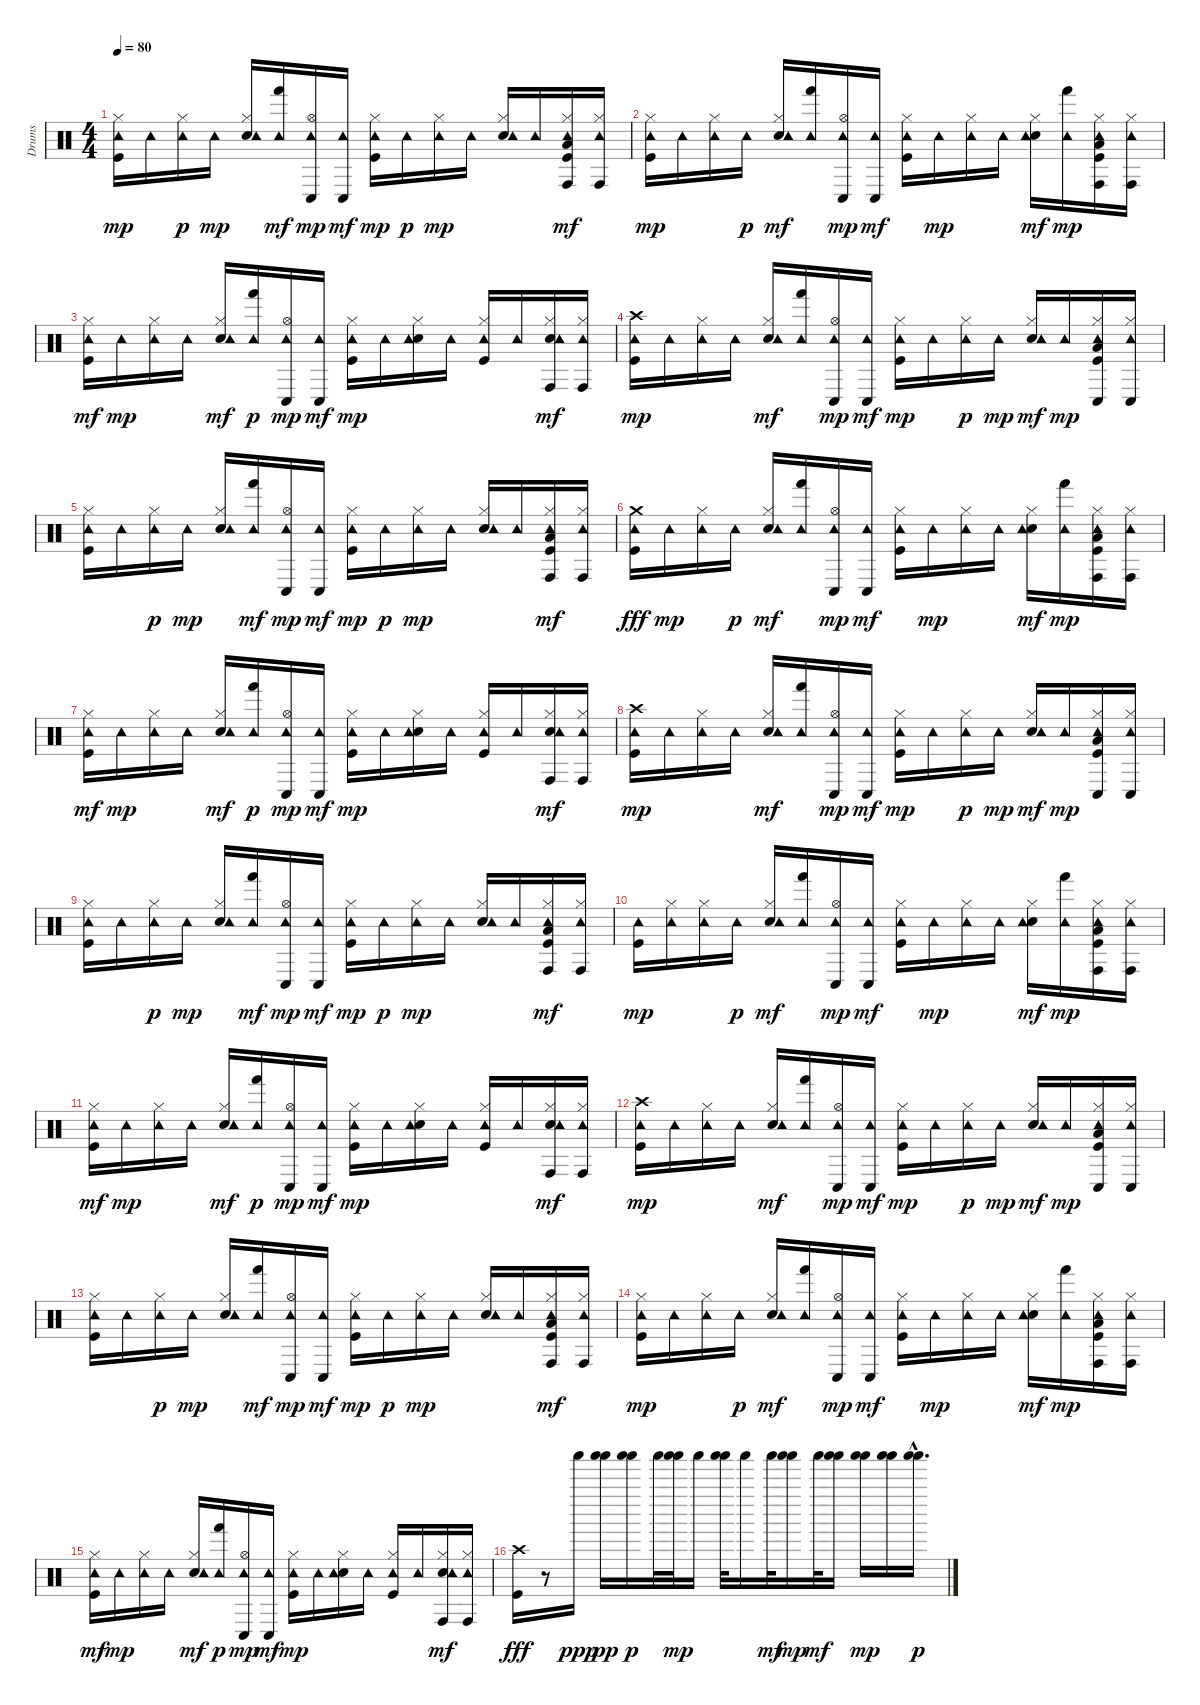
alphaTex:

\track ("Drums" "Drums") {instrument percussion}
\staff {score}
\articulation defaults
\ts (4 4)
\tempo 80
\clef neutral
\ks c
("Kick (hit)" "Hi-Hat (closed)" "Tambourine (hit)").16{dy mp} "Tambourine (hit)".16 ("Hi-Hat (closed)" "Tambourine (hit)").16{dy p} "Tambourine (hit)".16{dy mp} ("Electric Snare (hit)" "Hi-Hat (closed)" "Tambourine (hit)").16 ("Tambourine (hit)" "Hand (hit)").16{dy mf} ("Hi-Hat (open)" "Tambourine (hit)" "Conga low (hit)").16{dy mp} ("Tambourine (hit)" "Conga low (hit)").16{dy mf} ("Kick (hit)" "Hi-Hat (closed)" "Tambourine (hit)").16{dy mp} "Tambourine (hit)".16{dy p} ("Hi-Hat (closed)" "Tambourine (hit)").16{dy mp} "Tambourine (hit)".16 ("Electric Snare (hit)" "Hi-Hat (closed)" "Tambourine (hit)").16 "Tambourine (hit)".16 ("Kick (hit)" "Hi-Hat (closed)" "Low Tom (hit)" "Tambourine (hit)" "Conga high (hit)").16{dy mf} ("Hi-Hat (closed)" "Tambourine (hit)" "Conga high (hit)").16 |
("Kick (hit)" "Hi-Hat (closed)" "Tambourine (hit)").16{dy mp} "Tambourine (hit)".16 ("Hi-Hat (closed)" "Tambourine (hit)").16 "Tambourine (hit)".16{dy p} ("Electric Snare (hit)" "Hi-Hat (closed)" "Tambourine (hit)").16{dy mf} ("Tambourine (hit)" "Hand (hit)").16 ("Hi-Hat (open)" "Tambourine (hit)" "Conga low (hit)").16{dy mp} ("Tambourine (hit)" "Conga low (hit)").16{dy mf} ("Kick (hit)" "Hi-Hat (closed)" "Tambourine (hit)").16 "Tambourine (hit)".16{dy mp} ("Hi-Hat (closed)" "Tambourine (hit)").16 "Tambourine (hit)".16 ("Electric Snare (hit)" "Hi-Hat (closed)" "Tambourine (hit)").16{dy mf} ("Tambourine (hit)" "Hand (hit)").16{dy mp} ("Kick (hit)" "Hi-Hat (closed)" "Low Tom (hit)" "Tambourine (hit)" "Conga high (hit)").16 ("Hi-Hat (closed)" "Tambourine (hit)" "Conga high (hit)").16 |
("Kick (hit)" "Hi-Hat (closed)" "Tambourine (hit)").16{dy mf} "Tambourine (hit)".16{dy mp} ("Hi-Hat (closed)" "Tambourine (hit)").16 "Tambourine (hit)".16 ("Electric Snare (hit)" "Hi-Hat (closed)" "Tambourine (hit)").16{dy mf} ("Tambourine (hit)" "Hand (hit)").16{dy p} ("Hi-Hat (open)" "Tambourine (hit)" "Conga low (hit)").16{dy mp} ("Tambourine (hit)" "Conga low (hit)").16{dy mf} ("Kick (hit)" "Hi-Hat (closed)" "Tambourine (hit)").16{dy mp} "Tambourine (hit)".16 ("Electric Snare (hit)" "Hi-Hat (closed)" "Tambourine (hit)").16 "Tambourine (hit)".16 ("Kick (hit)" "Hi-Hat (closed)" "Tambourine (hit)").16 "Tambourine (hit)".16 ("Electric Snare (hit)" "Hi-Hat (closed)" "Tambourine (hit)" "Conga high (hit)").16{dy mf} ("Hi-Hat (closed)" "Tambourine (hit)" "Conga high (hit)").16 |
("Kick (hit)" "Crash high (hit)" "Tambourine (hit)").16{dy mp} "Tambourine (hit)".16 ("Hi-Hat (closed)" "Tambourine (hit)").16 "Tambourine (hit)".16 ("Electric Snare (hit)" "Hi-Hat (closed)" "Tambourine (hit)").16{dy mf} ("Tambourine (hit)" "Hand (hit)").16 ("Hi-Hat (open)" "Tambourine (hit)" "Conga low (hit)").16{dy mp} ("Tambourine (hit)" "Conga low (hit)").16{dy mf} ("Kick (hit)" "Hi-Hat (closed)" "Tambourine (hit)").16{dy mp} "Tambourine (hit)".16 ("Hi-Hat (closed)" "Tambourine (hit)").16{dy p} "Tambourine (hit)".16{dy mp} ("Electric Snare (hit)" "Hi-Hat (closed)" "Tambourine (hit)").16{dy mf} "Tambourine (hit)".16{dy mp} ("Kick (hit)" "Hi-Hat (closed)" "Low Tom (hit)" "Tambourine (hit)" "Conga low (hit)").16 ("Hi-Hat (closed)" "Tambourine (hit)" "Conga low (hit)").16 |
("Kick (hit)" "Hi-Hat (closed)" "Tambourine (hit)").16 "Tambourine (hit)".16 ("Hi-Hat (closed)" "Tambourine (hit)").16{dy p} "Tambourine (hit)".16{dy mp} ("Electric Snare (hit)" "Hi-Hat (closed)" "Tambourine (hit)").16 ("Tambourine (hit)" "Hand (hit)").16{dy mf} ("Hi-Hat (open)" "Tambourine (hit)" "Conga low (hit)").16{dy mp} ("Tambourine (hit)" "Conga low (hit)").16{dy mf} ("Kick (hit)" "Hi-Hat (closed)" "Tambourine (hit)").16{dy mp} "Tambourine (hit)".16{dy p} ("Hi-Hat (closed)" "Tambourine (hit)").16{dy mp} "Tambourine (hit)".16 ("Electric Snare (hit)" "Hi-Hat (closed)" "Tambourine (hit)").16 "Tambourine (hit)".16 ("Kick (hit)" "Hi-Hat (closed)" "Low Tom (hit)" "Tambourine (hit)" "Conga high (hit)").16{dy mf} ("Hi-Hat (closed)" "Tambourine (hit)" "Conga high (hit)").16 |
("Kick (hit)" "Tambourine (hit)" "Crash medium (hit)").16{dy fff} "Tambourine (hit)".16{dy mp} ("Hi-Hat (closed)" "Tambourine (hit)").16 "Tambourine (hit)".16{dy p} ("Electric Snare (hit)" "Hi-Hat (closed)" "Tambourine (hit)").16{dy mf} ("Tambourine (hit)" "Hand (hit)").16 ("Hi-Hat (open)" "Tambourine (hit)" "Conga low (hit)").16{dy mp} ("Tambourine (hit)" "Conga low (hit)").16{dy mf} ("Kick (hit)" "Hi-Hat (closed)" "Tambourine (hit)").16 "Tambourine (hit)".16{dy mp} ("Hi-Hat (closed)" "Tambourine (hit)").16 "Tambourine (hit)".16 ("Electric Snare (hit)" "Hi-Hat (closed)" "Tambourine (hit)").16{dy mf} ("Tambourine (hit)" "Hand (hit)").16{dy mp} ("Kick (hit)" "Hi-Hat (closed)" "Low Tom (hit)" "Tambourine (hit)" "Conga high (hit)").16 ("Hi-Hat (closed)" "Tambourine (hit)" "Conga high (hit)").16 |
("Kick (hit)" "Hi-Hat (closed)" "Tambourine (hit)").16{dy mf} "Tambourine (hit)".16{dy mp} ("Hi-Hat (closed)" "Tambourine (hit)").16 "Tambourine (hit)".16 ("Electric Snare (hit)" "Hi-Hat (closed)" "Tambourine (hit)").16{dy mf} ("Tambourine (hit)" "Hand (hit)").16{dy p} ("Hi-Hat (open)" "Tambourine (hit)" "Conga low (hit)").16{dy mp} ("Tambourine (hit)" "Conga low (hit)").16{dy mf} ("Kick (hit)" "Hi-Hat (closed)" "Tambourine (hit)").16{dy mp} "Tambourine (hit)".16 ("Electric Snare (hit)" "Hi-Hat (closed)" "Tambourine (hit)").16 "Tambourine (hit)".16 ("Kick (hit)" "Hi-Hat (closed)" "Tambourine (hit)").16 "Tambourine (hit)".16 ("Electric Snare (hit)" "Hi-Hat (closed)" "Tambourine (hit)" "Conga high (hit)").16{dy mf} ("Hi-Hat (closed)" "Tambourine (hit)" "Conga high (hit)").16 |
("Kick (hit)" "Crash high (hit)" "Tambourine (hit)").16{dy mp} "Tambourine (hit)".16 ("Hi-Hat (closed)" "Tambourine (hit)").16 "Tambourine (hit)".16 ("Electric Snare (hit)" "Hi-Hat (closed)" "Tambourine (hit)").16{dy mf} ("Tambourine (hit)" "Hand (hit)").16 ("Hi-Hat (open)" "Tambourine (hit)" "Conga low (hit)").16{dy mp} ("Tambourine (hit)" "Conga low (hit)").16{dy mf} ("Kick (hit)" "Hi-Hat (closed)" "Tambourine (hit)").16{dy mp} "Tambourine (hit)".16 ("Hi-Hat (closed)" "Tambourine (hit)").16{dy p} "Tambourine (hit)".16{dy mp} ("Electric Snare (hit)" "Hi-Hat (closed)" "Tambourine (hit)").16{dy mf} "Tambourine (hit)".16{dy mp} ("Kick (hit)" "Hi-Hat (closed)" "Low Tom (hit)" "Tambourine (hit)" "Conga low (hit)").16 ("Hi-Hat (closed)" "Tambourine (hit)" "Conga low (hit)").16 |
("Kick (hit)" "Hi-Hat (closed)" "Tambourine (hit)").16 "Tambourine (hit)".16 ("Hi-Hat (closed)" "Tambourine (hit)").16{dy p} "Tambourine (hit)".16{dy mp} ("Electric Snare (hit)" "Hi-Hat (closed)" "Tambourine (hit)").16 ("Tambourine (hit)" "Hand (hit)").16{dy mf} ("Hi-Hat (open)" "Tambourine (hit)" "Conga low (hit)").16{dy mp} ("Tambourine (hit)" "Conga low (hit)").16{dy mf} ("Kick (hit)" "Hi-Hat (closed)" "Tambourine (hit)").16{dy mp} "Tambourine (hit)".16{dy p} ("Hi-Hat (closed)" "Tambourine (hit)").16{dy mp} "Tambourine (hit)".16 ("Electric Snare (hit)" "Hi-Hat (closed)" "Tambourine (hit)").16 "Tambourine (hit)".16 ("Kick (hit)" "Hi-Hat (closed)" "Low Tom (hit)" "Tambourine (hit)" "Conga high (hit)").16{dy mf} ("Hi-Hat (closed)" "Tambourine (hit)" "Conga high (hit)").16 |
("Kick (hit)" "Tambourine (hit)").16{dy mp} ("Hi-Hat (closed)" "Tambourine (hit)").16 ("Hi-Hat (closed)" "Tambourine (hit)").16 "Tambourine (hit)".16{dy p} ("Electric Snare (hit)" "Hi-Hat (closed)" "Tambourine (hit)").16{dy mf} ("Tambourine (hit)" "Hand (hit)").16 ("Hi-Hat (open)" "Tambourine (hit)" "Conga low (hit)").16{dy mp} ("Tambourine (hit)" "Conga low (hit)").16{dy mf} ("Kick (hit)" "Hi-Hat (closed)" "Tambourine (hit)").16 "Tambourine (hit)".16{dy mp} ("Hi-Hat (closed)" "Tambourine (hit)").16 "Tambourine (hit)".16 ("Electric Snare (hit)" "Hi-Hat (closed)" "Tambourine (hit)").16{dy mf} ("Tambourine (hit)" "Hand (hit)").16{dy mp} ("Kick (hit)" "Hi-Hat (closed)" "Low Tom (hit)" "Tambourine (hit)" "Conga high (hit)").16 ("Hi-Hat (closed)" "Tambourine (hit)" "Conga high (hit)").16 |
("Kick (hit)" "Hi-Hat (closed)" "Tambourine (hit)").16{dy mf} "Tambourine (hit)".16{dy mp} ("Hi-Hat (closed)" "Tambourine (hit)").16 "Tambourine (hit)".16 ("Electric Snare (hit)" "Hi-Hat (closed)" "Tambourine (hit)").16{dy mf} ("Tambourine (hit)" "Hand (hit)").16{dy p} ("Hi-Hat (open)" "Tambourine (hit)" "Conga low (hit)").16{dy mp} ("Tambourine (hit)" "Conga low (hit)").16{dy mf} ("Kick (hit)" "Hi-Hat (closed)" "Tambourine (hit)").16{dy mp} "Tambourine (hit)".16 ("Electric Snare (hit)" "Hi-Hat (closed)" "Tambourine (hit)").16 "Tambourine (hit)".16 ("Kick (hit)" "Hi-Hat (closed)" "Tambourine (hit)").16 "Tambourine (hit)".16 ("Electric Snare (hit)" "Hi-Hat (closed)" "Tambourine (hit)" "Conga high (hit)").16{dy mf} ("Hi-Hat (closed)" "Tambourine (hit)" "Conga high (hit)").16 |
("Kick (hit)" "Crash high (hit)" "Tambourine (hit)").16{dy mp} "Tambourine (hit)".16 ("Hi-Hat (closed)" "Tambourine (hit)").16 "Tambourine (hit)".16 ("Electric Snare (hit)" "Hi-Hat (closed)" "Tambourine (hit)").16{dy mf} ("Tambourine (hit)" "Hand (hit)").16 ("Hi-Hat (open)" "Tambourine (hit)" "Conga low (hit)").16{dy mp} ("Tambourine (hit)" "Conga low (hit)").16{dy mf} ("Kick (hit)" "Hi-Hat (closed)" "Tambourine (hit)").16{dy mp} "Tambourine (hit)".16 ("Hi-Hat (closed)" "Tambourine (hit)").16{dy p} "Tambourine (hit)".16{dy mp} ("Electric Snare (hit)" "Hi-Hat (closed)" "Tambourine (hit)").16{dy mf} "Tambourine (hit)".16{dy mp} ("Kick (hit)" "Hi-Hat (closed)" "Low Tom (hit)" "Tambourine (hit)" "Conga low (hit)").16 ("Hi-Hat (closed)" "Tambourine (hit)" "Conga low (hit)").16 |
("Kick (hit)" "Hi-Hat (closed)" "Tambourine (hit)").16 "Tambourine (hit)".16 ("Hi-Hat (closed)" "Tambourine (hit)").16{dy p} "Tambourine (hit)".16{dy mp} ("Electric Snare (hit)" "Hi-Hat (closed)" "Tambourine (hit)").16 ("Tambourine (hit)" "Hand (hit)").16{dy mf} ("Hi-Hat (open)" "Tambourine (hit)" "Conga low (hit)").16{dy mp} ("Tambourine (hit)" "Conga low (hit)").16{dy mf} ("Kick (hit)" "Hi-Hat (closed)" "Tambourine (hit)").16{dy mp} "Tambourine (hit)".16{dy p} ("Hi-Hat (closed)" "Tambourine (hit)").16{dy mp} "Tambourine (hit)".16 ("Electric Snare (hit)" "Hi-Hat (closed)" "Tambourine (hit)").16 "Tambourine (hit)".16 ("Kick (hit)" "Hi-Hat (closed)" "Low Tom (hit)" "Tambourine (hit)" "Conga high (hit)").16{dy mf} ("Hi-Hat (closed)" "Tambourine (hit)" "Conga high (hit)").16 |
("Kick (hit)" "Hi-Hat (closed)" "Tambourine (hit)").16{dy mp} "Tambourine (hit)".16 ("Hi-Hat (closed)" "Tambourine (hit)").16 "Tambourine (hit)".16{dy p} ("Electric Snare (hit)" "Hi-Hat (closed)" "Tambourine (hit)").16{dy mf} ("Tambourine (hit)" "Hand (hit)").16 ("Hi-Hat (open)" "Tambourine (hit)" "Conga low (hit)").16{dy mp} ("Tambourine (hit)" "Conga low (hit)").16{dy mf} ("Kick (hit)" "Hi-Hat (closed)" "Tambourine (hit)").16 "Tambourine (hit)".16{dy mp} ("Hi-Hat (closed)" "Tambourine (hit)").16 "Tambourine (hit)".16 ("Electric Snare (hit)" "Hi-Hat (closed)" "Tambourine (hit)").16{dy mf} ("Tambourine (hit)" "Hand (hit)").16{dy mp} ("Kick (hit)" "Hi-Hat (closed)" "Low Tom (hit)" "Tambourine (hit)" "Conga high (hit)").16 ("Hi-Hat (closed)" "Tambourine (hit)" "Conga high (hit)").16 |
("Kick (hit)" "Hi-Hat (closed)" "Tambourine (hit)").16{dy mf} "Tambourine (hit)".16{dy mp} ("Hi-Hat (closed)" "Tambourine (hit)").16 "Tambourine (hit)".16 ("Electric Snare (hit)" "Hi-Hat (closed)" "Tambourine (hit)").16{dy mf} ("Tambourine (hit)" "Hand (hit)").16{dy p} ("Hi-Hat (open)" "Tambourine (hit)" "Conga low (hit)").16{dy mp} ("Tambourine (hit)" "Conga low (hit)").16{dy mf} ("Kick (hit)" "Hi-Hat (closed)" "Tambourine (hit)").16{dy mp} "Tambourine (hit)".16 ("Electric Snare (hit)" "Hi-Hat (closed)" "Tambourine (hit)").16 "Tambourine (hit)".16 ("Kick (hit)" "Hi-Hat (closed)" "Tambourine (hit)").16 "Tambourine (hit)".16 ("Electric Snare (hit)" "Hi-Hat (closed)" "Tambourine (hit)" "Conga high (hit)").16{dy mf} ("Hi-Hat (closed)" "Tambourine (hit)" "Conga high (hit)").16 |
("Kick (hit)" "Crash high (hit)").16{dy fff} r.8 "Shaker (hit)".16{dy ppp} ("Shaker (hit)" "Shaker (hit)").16{dy pp} ("Shaker (hit)" "Shaker (hit)").16{dy p} "Shaker (hit)".32 ("Shaker (hit)" "Shaker (hit)").32{dy mp} "Shaker (hit)".16 ("Shaker (hit)" "Shaker (hit)").32 "Shaker (hit)".16 "Shaker (hit)".32{dy mf} ("Shaker (hit)" "Shaker (hit)").16{dy mp} "Shaker (hit)".32{dy mf} ("Shaker (hit)" "Shaker (hit)").16 ("Shaker (hit)" "Shaker (hit)").16{dy mp} ("Shaker (hit)" "Shaker (hit)").16 ("Shaker (hit)"{hac} "Shaker (hit)"{hac}).16{d dy p}
